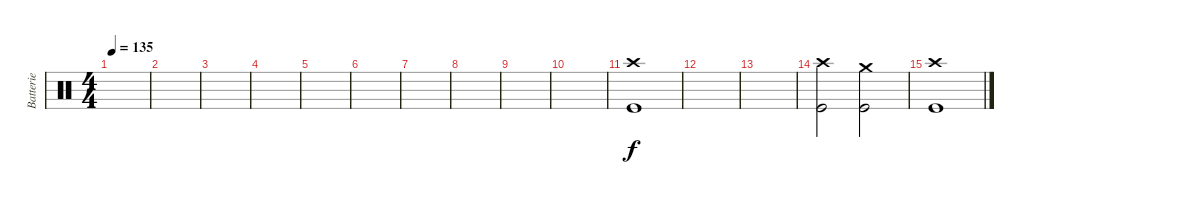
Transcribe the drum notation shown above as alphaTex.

\track ("Batterie" "Batterie") {instrument percussion}
\staff {score}
\articulation defaults
\ts (4 4)
\tempo 135
\clef neutral
\ks c
|
|
|
|
|
|
|
|
|
|
("Crash high (hit)" "Kick (hit)").1 |
|
|
("Crash high (hit)" "Kick (hit)").2 ("Crash medium (hit)" "Kick (hit)").2 |
("Crash high (hit)" "Kick (hit)").1
